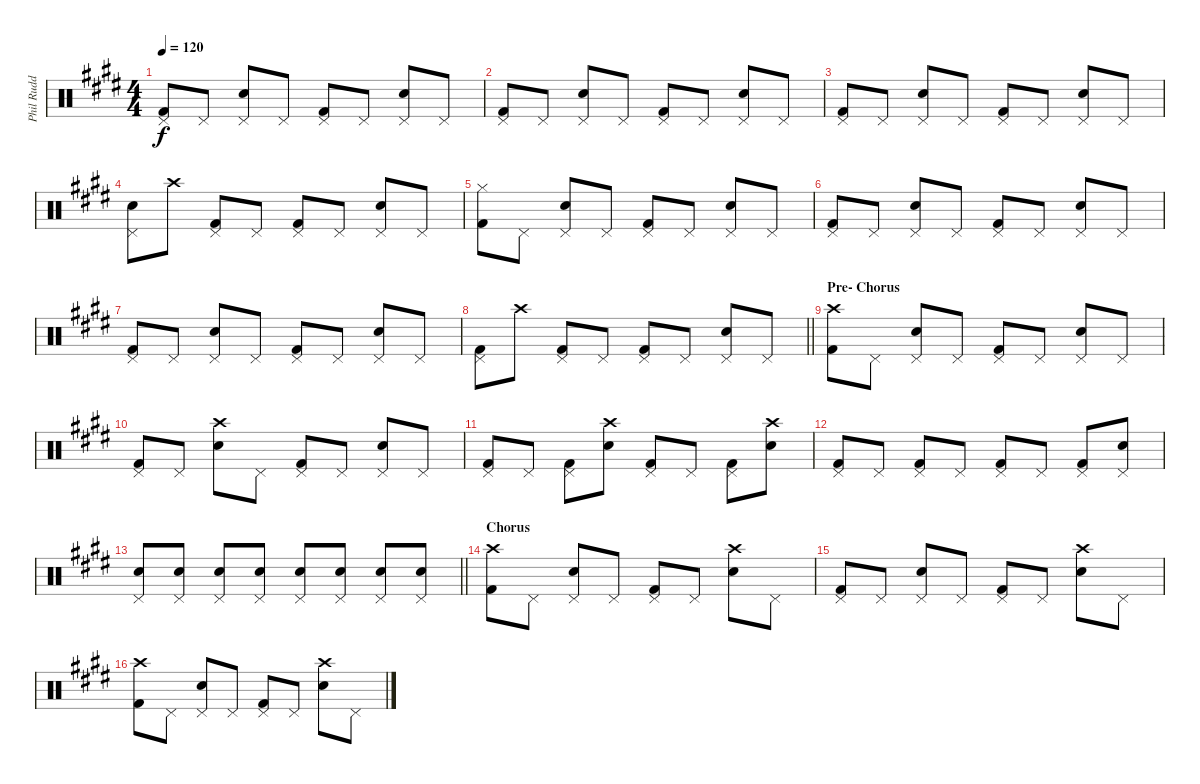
\track ("Phil Rudd (Drums)" "Phil Rudd ") {instrument percussion}
\staff {score}
\articulation defaults
\ts (4 4)
\tempo 120
\clef neutral
\ks e
("Pedal Hi-Hat (hit)" "Kick (hit) 2").8{dy f} "Pedal Hi-Hat (hit)".8 ("Pedal Hi-Hat (hit)" "Snare (hit) 2").8 "Pedal Hi-Hat (hit)".8 ("Pedal Hi-Hat (hit)" "Kick (hit) 2").8 "Pedal Hi-Hat (hit)".8 ("Pedal Hi-Hat (hit)" "Snare (hit) 2").8 "Pedal Hi-Hat (hit)".8 |
("Pedal Hi-Hat (hit)" "Kick (hit) 2").8 "Pedal Hi-Hat (hit)".8 ("Pedal Hi-Hat (hit)" "Snare (hit) 2").8 "Pedal Hi-Hat (hit)".8 ("Pedal Hi-Hat (hit)" "Kick (hit) 2").8 "Pedal Hi-Hat (hit)".8 ("Pedal Hi-Hat (hit)" "Snare (hit) 2").8 "Pedal Hi-Hat (hit)".8 |
("Pedal Hi-Hat (hit)" "Kick (hit) 2").8 "Pedal Hi-Hat (hit)".8 ("Pedal Hi-Hat (hit)" "Snare (hit) 2").8 "Pedal Hi-Hat (hit)".8 ("Pedal Hi-Hat (hit)" "Kick (hit) 2").8 "Pedal Hi-Hat (hit)".8 ("Pedal Hi-Hat (hit)" "Snare (hit) 2").8 "Pedal Hi-Hat (hit)".8 |
("Pedal Hi-Hat (hit)" "Snare (hit) 2").8 "Crash high (hit)".8 ("Pedal Hi-Hat (hit)" "Kick (hit) 2").8 "Pedal Hi-Hat (hit)".8 ("Pedal Hi-Hat (hit)" "Kick (hit) 2").8 "Pedal Hi-Hat (hit)".8 ("Pedal Hi-Hat (hit)" "Snare (hit) 2").8 "Pedal Hi-Hat (hit)".8 |
("Hi-Hat (closed)" "Kick (hit) 2").8 "Pedal Hi-Hat (hit)".8 ("Pedal Hi-Hat (hit)" "Snare (hit) 2").8 "Pedal Hi-Hat (hit)".8 ("Pedal Hi-Hat (hit)" "Kick (hit) 2").8 "Pedal Hi-Hat (hit)".8 ("Pedal Hi-Hat (hit)" "Snare (hit) 2").8 "Pedal Hi-Hat (hit)".8 |
("Pedal Hi-Hat (hit)" "Kick (hit) 2").8 "Pedal Hi-Hat (hit)".8 ("Pedal Hi-Hat (hit)" "Snare (hit) 2").8 "Pedal Hi-Hat (hit)".8 ("Pedal Hi-Hat (hit)" "Kick (hit) 2").8 "Pedal Hi-Hat (hit)".8 ("Pedal Hi-Hat (hit)" "Snare (hit) 2").8 "Pedal Hi-Hat (hit)".8 |
("Pedal Hi-Hat (hit)" "Kick (hit) 2").8 "Pedal Hi-Hat (hit)".8 ("Pedal Hi-Hat (hit)" "Snare (hit) 2").8 "Pedal Hi-Hat (hit)".8 ("Pedal Hi-Hat (hit)" "Kick (hit) 2").8 "Pedal Hi-Hat (hit)".8 ("Pedal Hi-Hat (hit)" "Snare (hit) 2").8 "Pedal Hi-Hat (hit)".8 |
\barLineRight lightlight
("Pedal Hi-Hat (hit)" "Kick (hit) 2").8 "Crash high (hit)".8 ("Pedal Hi-Hat (hit)" "Kick (hit) 2").8 "Pedal Hi-Hat (hit)".8 ("Pedal Hi-Hat (hit)" "Kick (hit) 2").8 "Pedal Hi-Hat (hit)".8 ("Pedal Hi-Hat (hit)" "Snare (hit) 2").8 "Pedal Hi-Hat (hit)".8 |
\section ("" "Pre- Chorus")
("Crash high (hit)" "Kick (hit) 2").8 "Pedal Hi-Hat (hit)".8 ("Pedal Hi-Hat (hit)" "Snare (hit) 2").8 "Pedal Hi-Hat (hit)".8 ("Pedal Hi-Hat (hit)" "Kick (hit) 2").8 "Pedal Hi-Hat (hit)".8 ("Pedal Hi-Hat (hit)" "Snare (hit) 2").8 "Pedal Hi-Hat (hit)".8 |
("Pedal Hi-Hat (hit)" "Kick (hit) 2").8 "Pedal Hi-Hat (hit)".8 ("Crash high (hit)" "Snare (hit) 2").8 "Pedal Hi-Hat (hit)".8 ("Pedal Hi-Hat (hit)" "Kick (hit) 2").8 "Pedal Hi-Hat (hit)".8 ("Pedal Hi-Hat (hit)" "Snare (hit) 2").8 "Pedal Hi-Hat (hit)".8 |
("Pedal Hi-Hat (hit)" "Kick (hit) 2").8 "Pedal Hi-Hat (hit)".8 ("Pedal Hi-Hat (hit)" "Kick (hit) 2").8 ("Crash high (hit)" "Snare (hit) 2").8 ("Pedal Hi-Hat (hit)" "Kick (hit) 2").8 "Pedal Hi-Hat (hit)".8 ("Pedal Hi-Hat (hit)" "Kick (hit) 2").8 ("Crash high (hit)" "Snare (hit) 2").8 |
("Pedal Hi-Hat (hit)" "Kick (hit) 2").8 "Pedal Hi-Hat (hit)".8 ("Pedal Hi-Hat (hit)" "Kick (hit) 2").8 "Pedal Hi-Hat (hit)".8 ("Pedal Hi-Hat (hit)" "Kick (hit) 2").8 "Pedal Hi-Hat (hit)".8 ("Pedal Hi-Hat (hit)" "Kick (hit) 2").8 ("Pedal Hi-Hat (hit)" "Snare (hit) 2").8 |
\barLineRight lightlight
("Pedal Hi-Hat (hit)" "Snare (hit) 2").8 ("Pedal Hi-Hat (hit)" "Snare (hit) 2").8 ("Pedal Hi-Hat (hit)" "Snare (hit) 2").8 ("Pedal Hi-Hat (hit)" "Snare (hit) 2").8 ("Pedal Hi-Hat (hit)" "Snare (hit) 2").8 ("Pedal Hi-Hat (hit)" "Snare (hit) 2").8 ("Pedal Hi-Hat (hit)" "Snare (hit) 2").8 ("Pedal Hi-Hat (hit)" "Snare (hit) 2").8 |
\section ("" "Chorus")
("Crash high (hit)" "Kick (hit) 2").8 "Pedal Hi-Hat (hit)".8 ("Pedal Hi-Hat (hit)" "Snare (hit) 2").8 "Pedal Hi-Hat (hit)".8 ("Pedal Hi-Hat (hit)" "Kick (hit) 2").8 "Pedal Hi-Hat (hit)".8 ("Crash high (hit)" "Snare (hit) 2").8 "Pedal Hi-Hat (hit)".8 |
("Pedal Hi-Hat (hit)" "Kick (hit) 2").8 "Pedal Hi-Hat (hit)".8 ("Pedal Hi-Hat (hit)" "Snare (hit) 2").8 "Pedal Hi-Hat (hit)".8 ("Pedal Hi-Hat (hit)" "Kick (hit) 2").8 "Pedal Hi-Hat (hit)".8 ("Crash high (hit)" "Snare (hit) 2").8 "Pedal Hi-Hat (hit)".8 |
("Crash high (hit)" "Kick (hit) 2").8 "Pedal Hi-Hat (hit)".8 ("Pedal Hi-Hat (hit)" "Snare (hit) 2").8 "Pedal Hi-Hat (hit)".8 ("Pedal Hi-Hat (hit)" "Kick (hit) 2").8 "Pedal Hi-Hat (hit)".8 ("Crash high (hit)" "Snare (hit) 2").8 "Pedal Hi-Hat (hit)".8
